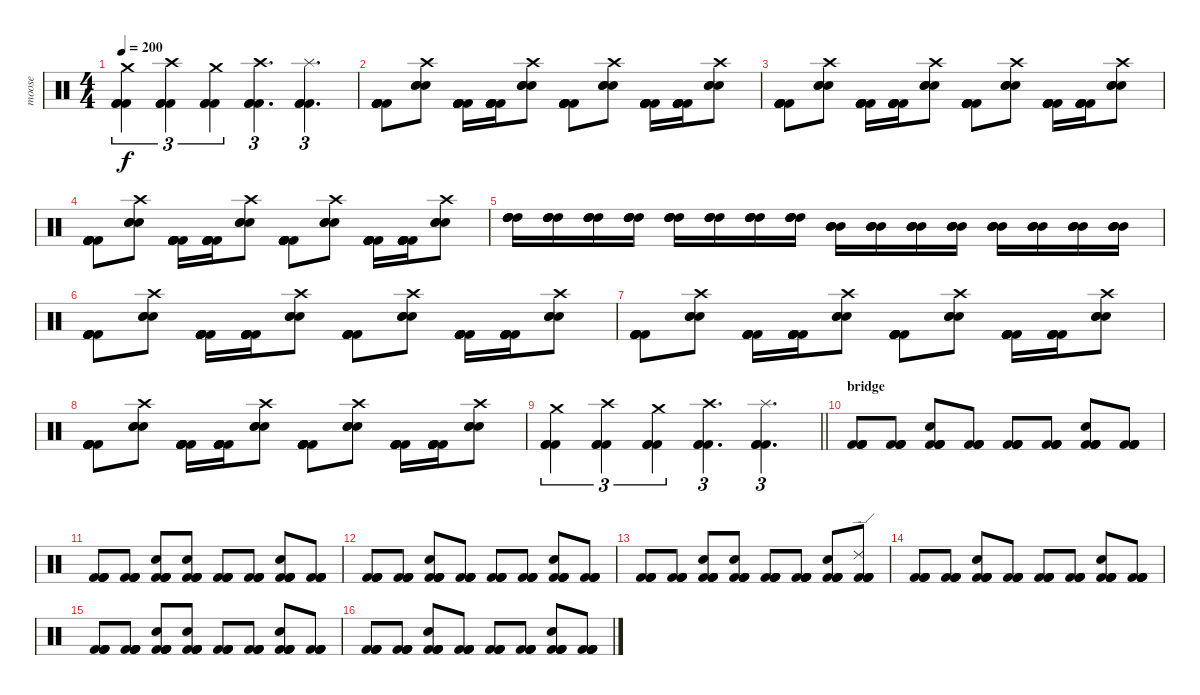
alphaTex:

\track ("moose" "moose") {instrument percussion}
\staff {score}
\articulation defaults
\ts (4 4)
\tempo 200
\clef neutral
\ks c
("Kick (hit) 2" "Kick (hit) 2" "Kick (hit) 2" "Crash medium (hit)").4{tu (3 2) dy f} ("Kick (hit) 2" "Kick (hit) 2" "Kick (hit) 2" "Crash high (hit)").4{tu (3 2)} ("Kick (hit) 2" "Kick (hit) 2" "Kick (hit) 2" "Crash medium (hit)").4{tu (3 2)} ("Kick (hit) 2" "Kick (hit) 2" "Kick (hit) 2" "Crash high (hit)").4{d tu (3 2)} ("Kick (hit) 2" "Kick (hit) 2" "Kick (hit) 2" "Splash (hit)").4{d tu (3 2)} |
("Kick (hit) 2" "Kick (hit) 2" "Kick (hit) 2" "Kick (hit) 2" "Kick (hit) 2" "Kick (hit) 2").8 ("Electric Snare (hit)" "Electric Snare (hit)" "Electric Snare (hit)" "Crash high (hit)").8 ("Kick (hit) 2" "Kick (hit) 2" "Kick (hit) 2" "Kick (hit) 2" "Kick (hit) 2" "Kick (hit) 2").16 ("Kick (hit) 2" "Kick (hit) 2" "Kick (hit) 2" "Kick (hit) 2" "Kick (hit) 2" "Kick (hit) 2").16 ("Electric Snare (hit)" "Electric Snare (hit)" "Electric Snare (hit)" "Crash high (hit)").8 ("Kick (hit) 2" "Kick (hit) 2" "Kick (hit) 2" "Kick (hit) 2" "Kick (hit) 2" "Kick (hit) 2").8 ("Electric Snare (hit)" "Electric Snare (hit)" "Electric Snare (hit)" "Crash high (hit)").8 ("Kick (hit) 2" "Kick (hit) 2" "Kick (hit) 2" "Kick (hit) 2" "Kick (hit) 2" "Kick (hit) 2").16 ("Kick (hit) 2" "Kick (hit) 2" "Kick (hit) 2" "Kick (hit) 2" "Kick (hit) 2" "Kick (hit) 2").16 ("Electric Snare (hit)" "Electric Snare (hit)" "Electric Snare (hit)" "Crash high (hit)").8 |
("Kick (hit) 2" "Kick (hit) 2" "Kick (hit) 2" "Kick (hit) 2" "Kick (hit) 2" "Kick (hit) 2").8 ("Electric Snare (hit)" "Electric Snare (hit)" "Electric Snare (hit)" "Crash high (hit)").8 ("Kick (hit) 2" "Kick (hit) 2" "Kick (hit) 2" "Kick (hit) 2" "Kick (hit) 2" "Kick (hit) 2").16 ("Kick (hit) 2" "Kick (hit) 2" "Kick (hit) 2" "Kick (hit) 2" "Kick (hit) 2" "Kick (hit) 2").16 ("Electric Snare (hit)" "Electric Snare (hit)" "Electric Snare (hit)" "Crash high (hit)").8 ("Kick (hit) 2" "Kick (hit) 2" "Kick (hit) 2" "Kick (hit) 2" "Kick (hit) 2" "Kick (hit) 2").8 ("Electric Snare (hit)" "Electric Snare (hit)" "Electric Snare (hit)" "Crash high (hit)").8 ("Kick (hit) 2" "Kick (hit) 2" "Kick (hit) 2" "Kick (hit) 2" "Kick (hit) 2" "Kick (hit) 2").16 ("Kick (hit) 2" "Kick (hit) 2" "Kick (hit) 2" "Kick (hit) 2" "Kick (hit) 2" "Kick (hit) 2").16 ("Electric Snare (hit)" "Electric Snare (hit)" "Electric Snare (hit)" "Crash high (hit)").8 |
("Kick (hit) 2" "Kick (hit) 2" "Kick (hit) 2" "Kick (hit) 2" "Kick (hit) 2" "Kick (hit) 2").8 ("Electric Snare (hit)" "Electric Snare (hit)" "Electric Snare (hit)" "Crash high (hit)").8 ("Kick (hit) 2" "Kick (hit) 2" "Kick (hit) 2" "Kick (hit) 2" "Kick (hit) 2" "Kick (hit) 2").16 ("Kick (hit) 2" "Kick (hit) 2" "Kick (hit) 2" "Kick (hit) 2" "Kick (hit) 2" "Kick (hit) 2").16 ("Electric Snare (hit)" "Electric Snare (hit)" "Electric Snare (hit)" "Crash high (hit)").8 ("Kick (hit) 2" "Kick (hit) 2" "Kick (hit) 2" "Kick (hit) 2" "Kick (hit) 2" "Kick (hit) 2").8 ("Electric Snare (hit)" "Electric Snare (hit)" "Electric Snare (hit)" "Crash high (hit)").8 ("Kick (hit) 2" "Kick (hit) 2" "Kick (hit) 2" "Kick (hit) 2" "Kick (hit) 2" "Kick (hit) 2").16 ("Kick (hit) 2" "Kick (hit) 2" "Kick (hit) 2" "Kick (hit) 2" "Kick (hit) 2" "Kick (hit) 2").16 ("Electric Snare (hit)" "Electric Snare (hit)" "Electric Snare (hit)" "Crash high (hit)").8 |
("High Tom (hit)" "High Tom (hit)" "High Tom (hit)" "High Tom (hit)").16 ("High Tom (hit)" "High Tom (hit)" "High Tom (hit)" "High Tom (hit)").16 ("High Tom (hit)" "High Tom (hit)" "High Tom (hit)" "High Tom (hit)").16 ("High Tom (hit)" "High Tom (hit)" "High Tom (hit)" "High Tom (hit)").16 ("High Tom (hit)" "High Tom (hit)" "High Tom (hit)" "High Tom (hit)").16 ("High Tom (hit)" "High Tom (hit)" "High Tom (hit)" "High Tom (hit)").16 ("High Tom (hit)" "High Tom (hit)" "High Tom (hit)" "High Tom (hit)").16 ("High Tom (hit)" "High Tom (hit)" "High Tom (hit)" "High Tom (hit)").16 ("Mid Tom (hit)" "Mid Tom (hit)" "Mid Tom (hit)" "Mid Tom (hit)").16 ("Mid Tom (hit)" "Mid Tom (hit)" "Mid Tom (hit)" "Mid Tom (hit)").16 ("Mid Tom (hit)" "Mid Tom (hit)" "Mid Tom (hit)" "Mid Tom (hit)").16 ("Mid Tom (hit)" "Mid Tom (hit)" "Mid Tom (hit)" "Mid Tom (hit)").16 ("Mid Tom (hit)" "Mid Tom (hit)" "Mid Tom (hit)" "Mid Tom (hit)").16 ("Mid Tom (hit)" "Mid Tom (hit)" "Mid Tom (hit)" "Mid Tom (hit)").16 ("Mid Tom (hit)" "Mid Tom (hit)" "Mid Tom (hit)" "Mid Tom (hit)").16 ("Mid Tom (hit)" "Mid Tom (hit)" "Mid Tom (hit)" "Mid Tom (hit)").16 |
("Kick (hit) 2" "Kick (hit) 2" "Kick (hit) 2" "Kick (hit) 2" "Kick (hit) 2" "Kick (hit) 2").8 ("Electric Snare (hit)" "Electric Snare (hit)" "Electric Snare (hit)" "Crash high (hit)").8 ("Kick (hit) 2" "Kick (hit) 2" "Kick (hit) 2" "Kick (hit) 2" "Kick (hit) 2" "Kick (hit) 2").16 ("Kick (hit) 2" "Kick (hit) 2" "Kick (hit) 2" "Kick (hit) 2" "Kick (hit) 2" "Kick (hit) 2").16 ("Electric Snare (hit)" "Electric Snare (hit)" "Electric Snare (hit)" "Crash high (hit)").8 ("Kick (hit) 2" "Kick (hit) 2" "Kick (hit) 2" "Kick (hit) 2" "Kick (hit) 2" "Kick (hit) 2").8 ("Electric Snare (hit)" "Electric Snare (hit)" "Electric Snare (hit)" "Crash high (hit)").8 ("Kick (hit) 2" "Kick (hit) 2" "Kick (hit) 2" "Kick (hit) 2" "Kick (hit) 2" "Kick (hit) 2").16 ("Kick (hit) 2" "Kick (hit) 2" "Kick (hit) 2" "Kick (hit) 2" "Kick (hit) 2" "Kick (hit) 2").16 ("Electric Snare (hit)" "Electric Snare (hit)" "Electric Snare (hit)" "Crash high (hit)").8 |
("Kick (hit) 2" "Kick (hit) 2" "Kick (hit) 2" "Kick (hit) 2" "Kick (hit) 2" "Kick (hit) 2").8 ("Electric Snare (hit)" "Electric Snare (hit)" "Electric Snare (hit)" "Crash high (hit)").8 ("Kick (hit) 2" "Kick (hit) 2" "Kick (hit) 2" "Kick (hit) 2" "Kick (hit) 2" "Kick (hit) 2").16 ("Kick (hit) 2" "Kick (hit) 2" "Kick (hit) 2" "Kick (hit) 2" "Kick (hit) 2" "Kick (hit) 2").16 ("Electric Snare (hit)" "Electric Snare (hit)" "Electric Snare (hit)" "Crash high (hit)").8 ("Kick (hit) 2" "Kick (hit) 2" "Kick (hit) 2" "Kick (hit) 2" "Kick (hit) 2" "Kick (hit) 2").8 ("Electric Snare (hit)" "Electric Snare (hit)" "Electric Snare (hit)" "Crash high (hit)").8 ("Kick (hit) 2" "Kick (hit) 2" "Kick (hit) 2" "Kick (hit) 2" "Kick (hit) 2" "Kick (hit) 2").16 ("Kick (hit) 2" "Kick (hit) 2" "Kick (hit) 2" "Kick (hit) 2" "Kick (hit) 2" "Kick (hit) 2").16 ("Electric Snare (hit)" "Electric Snare (hit)" "Electric Snare (hit)" "Crash high (hit)").8 |
("Kick (hit) 2" "Kick (hit) 2" "Kick (hit) 2" "Kick (hit) 2" "Kick (hit) 2" "Kick (hit) 2").8 ("Electric Snare (hit)" "Electric Snare (hit)" "Electric Snare (hit)" "Crash high (hit)").8 ("Kick (hit) 2" "Kick (hit) 2" "Kick (hit) 2" "Kick (hit) 2" "Kick (hit) 2" "Kick (hit) 2").16 ("Kick (hit) 2" "Kick (hit) 2" "Kick (hit) 2" "Kick (hit) 2" "Kick (hit) 2" "Kick (hit) 2").16 ("Electric Snare (hit)" "Electric Snare (hit)" "Electric Snare (hit)" "Crash high (hit)").8 ("Kick (hit) 2" "Kick (hit) 2" "Kick (hit) 2" "Kick (hit) 2" "Kick (hit) 2" "Kick (hit) 2").8 ("Electric Snare (hit)" "Electric Snare (hit)" "Electric Snare (hit)" "Crash high (hit)").8 ("Kick (hit) 2" "Kick (hit) 2" "Kick (hit) 2" "Kick (hit) 2" "Kick (hit) 2" "Kick (hit) 2").16 ("Kick (hit) 2" "Kick (hit) 2" "Kick (hit) 2" "Kick (hit) 2" "Kick (hit) 2" "Kick (hit) 2").16 ("Electric Snare (hit)" "Electric Snare (hit)" "Electric Snare (hit)" "Crash high (hit)").8 |
\barLineRight lightlight
("Kick (hit) 2" "Kick (hit) 2" "Kick (hit) 2" "Crash medium (hit)").4{tu (3 2)} ("Kick (hit) 2" "Kick (hit) 2" "Kick (hit) 2" "Crash high (hit)").4{tu (3 2)} ("Kick (hit) 2" "Kick (hit) 2" "Kick (hit) 2" "Crash medium (hit)").4{tu (3 2)} ("Kick (hit) 2" "Kick (hit) 2" "Kick (hit) 2" "Crash high (hit)").4{d tu (3 2)} ("Kick (hit) 2" "Kick (hit) 2" "Kick (hit) 2" "Splash (hit)").4{d tu (3 2)} |
\section ("" "bridge")
("Kick (hit) 2" "Kick (hit) 2" "Kick (hit) 2" "Kick (hit) 2").8 ("Kick (hit) 2" "Kick (hit) 2" "Kick (hit) 2" "Kick (hit) 2").8 ("Kick (hit) 2" "Kick (hit) 2" "Kick (hit) 2" "Kick (hit) 2" "Hand Clap (hit)").8 ("Kick (hit) 2" "Kick (hit) 2" "Kick (hit) 2" "Kick (hit) 2").8 ("Kick (hit) 2" "Kick (hit) 2" "Kick (hit) 2" "Kick (hit) 2").8 ("Kick (hit) 2" "Kick (hit) 2" "Kick (hit) 2" "Kick (hit) 2").8 ("Kick (hit) 2" "Kick (hit) 2" "Kick (hit) 2" "Kick (hit) 2" "Hand Clap (hit)").8 ("Kick (hit) 2" "Kick (hit) 2" "Kick (hit) 2" "Kick (hit) 2").8 |
("Kick (hit) 2" "Kick (hit) 2" "Kick (hit) 2" "Kick (hit) 2").8 ("Kick (hit) 2" "Kick (hit) 2" "Kick (hit) 2" "Kick (hit) 2").8 ("Kick (hit) 2" "Kick (hit) 2" "Kick (hit) 2" "Kick (hit) 2" "Hand Clap (hit)").8 ("Kick (hit) 2" "Kick (hit) 2" "Kick (hit) 2" "Kick (hit) 2" "Hand Clap (hit)").8 ("Kick (hit) 2" "Kick (hit) 2" "Kick (hit) 2" "Kick (hit) 2").8 ("Kick (hit) 2" "Kick (hit) 2" "Kick (hit) 2" "Kick (hit) 2").8 ("Kick (hit) 2" "Kick (hit) 2" "Kick (hit) 2" "Kick (hit) 2" "Hand Clap (hit)").8 ("Kick (hit) 2" "Kick (hit) 2" "Kick (hit) 2" "Kick (hit) 2").8 |
("Kick (hit) 2" "Kick (hit) 2" "Kick (hit) 2" "Kick (hit) 2").8 ("Kick (hit) 2" "Kick (hit) 2" "Kick (hit) 2" "Kick (hit) 2").8 ("Kick (hit) 2" "Kick (hit) 2" "Kick (hit) 2" "Kick (hit) 2" "Hand Clap (hit)").8 ("Kick (hit) 2" "Kick (hit) 2" "Kick (hit) 2" "Kick (hit) 2").8 ("Kick (hit) 2" "Kick (hit) 2" "Kick (hit) 2" "Kick (hit) 2").8 ("Kick (hit) 2" "Kick (hit) 2" "Kick (hit) 2" "Kick (hit) 2").8 ("Kick (hit) 2" "Kick (hit) 2" "Kick (hit) 2" "Kick (hit) 2" "Hand Clap (hit)").8 ("Kick (hit) 2" "Kick (hit) 2" "Kick (hit) 2" "Kick (hit) 2").8 |
("Kick (hit) 2" "Kick (hit) 2" "Kick (hit) 2" "Kick (hit) 2").8 ("Kick (hit) 2" "Kick (hit) 2" "Kick (hit) 2" "Kick (hit) 2").8 ("Kick (hit) 2" "Kick (hit) 2" "Kick (hit) 2" "Kick (hit) 2" "Hand Clap (hit)").8 ("Kick (hit) 2" "Kick (hit) 2" "Kick (hit) 2" "Kick (hit) 2" "Hand Clap (hit)").8 ("Kick (hit) 2" "Kick (hit) 2" "Kick (hit) 2" "Kick (hit) 2").8 ("Kick (hit) 2" "Kick (hit) 2" "Kick (hit) 2" "Kick (hit) 2").8 ("Kick (hit) 2" "Kick (hit) 2" "Kick (hit) 2" "Kick (hit) 2" "Hand Clap (hit)").8 ("Kick (hit) 2" "Kick (hit) 2" "Kick (hit) 2" "Kick (hit) 2" "Ride (edge) 2").8 |
("Kick (hit) 2" "Kick (hit) 2" "Kick (hit) 2" "Kick (hit) 2").8 ("Kick (hit) 2" "Kick (hit) 2" "Kick (hit) 2" "Kick (hit) 2").8 ("Kick (hit) 2" "Kick (hit) 2" "Kick (hit) 2" "Kick (hit) 2" "Hand Clap (hit)").8 ("Kick (hit) 2" "Kick (hit) 2" "Kick (hit) 2" "Kick (hit) 2").8 ("Kick (hit) 2" "Kick (hit) 2" "Kick (hit) 2" "Kick (hit) 2").8 ("Kick (hit) 2" "Kick (hit) 2" "Kick (hit) 2" "Kick (hit) 2").8 ("Kick (hit) 2" "Kick (hit) 2" "Kick (hit) 2" "Kick (hit) 2" "Hand Clap (hit)").8 ("Kick (hit) 2" "Kick (hit) 2" "Kick (hit) 2" "Kick (hit) 2").8 |
("Kick (hit) 2" "Kick (hit) 2" "Kick (hit) 2" "Kick (hit) 2").8 ("Kick (hit) 2" "Kick (hit) 2" "Kick (hit) 2" "Kick (hit) 2").8 ("Kick (hit) 2" "Kick (hit) 2" "Kick (hit) 2" "Kick (hit) 2" "Hand Clap (hit)").8 ("Kick (hit) 2" "Kick (hit) 2" "Kick (hit) 2" "Kick (hit) 2" "Hand Clap (hit)").8 ("Kick (hit) 2" "Kick (hit) 2" "Kick (hit) 2" "Kick (hit) 2").8 ("Kick (hit) 2" "Kick (hit) 2" "Kick (hit) 2" "Kick (hit) 2").8 ("Kick (hit) 2" "Kick (hit) 2" "Kick (hit) 2" "Kick (hit) 2" "Hand Clap (hit)").8 ("Kick (hit) 2" "Kick (hit) 2" "Kick (hit) 2" "Kick (hit) 2").8 |
("Kick (hit) 2" "Kick (hit) 2" "Kick (hit) 2" "Kick (hit) 2").8 ("Kick (hit) 2" "Kick (hit) 2" "Kick (hit) 2" "Kick (hit) 2").8 ("Kick (hit) 2" "Kick (hit) 2" "Kick (hit) 2" "Kick (hit) 2" "Hand Clap (hit)").8 ("Kick (hit) 2" "Kick (hit) 2" "Kick (hit) 2" "Kick (hit) 2").8 ("Kick (hit) 2" "Kick (hit) 2" "Kick (hit) 2" "Kick (hit) 2").8 ("Kick (hit) 2" "Kick (hit) 2" "Kick (hit) 2" "Kick (hit) 2").8 ("Kick (hit) 2" "Kick (hit) 2" "Kick (hit) 2" "Kick (hit) 2" "Hand Clap (hit)").8 ("Kick (hit) 2" "Kick (hit) 2" "Kick (hit) 2" "Kick (hit) 2").8
